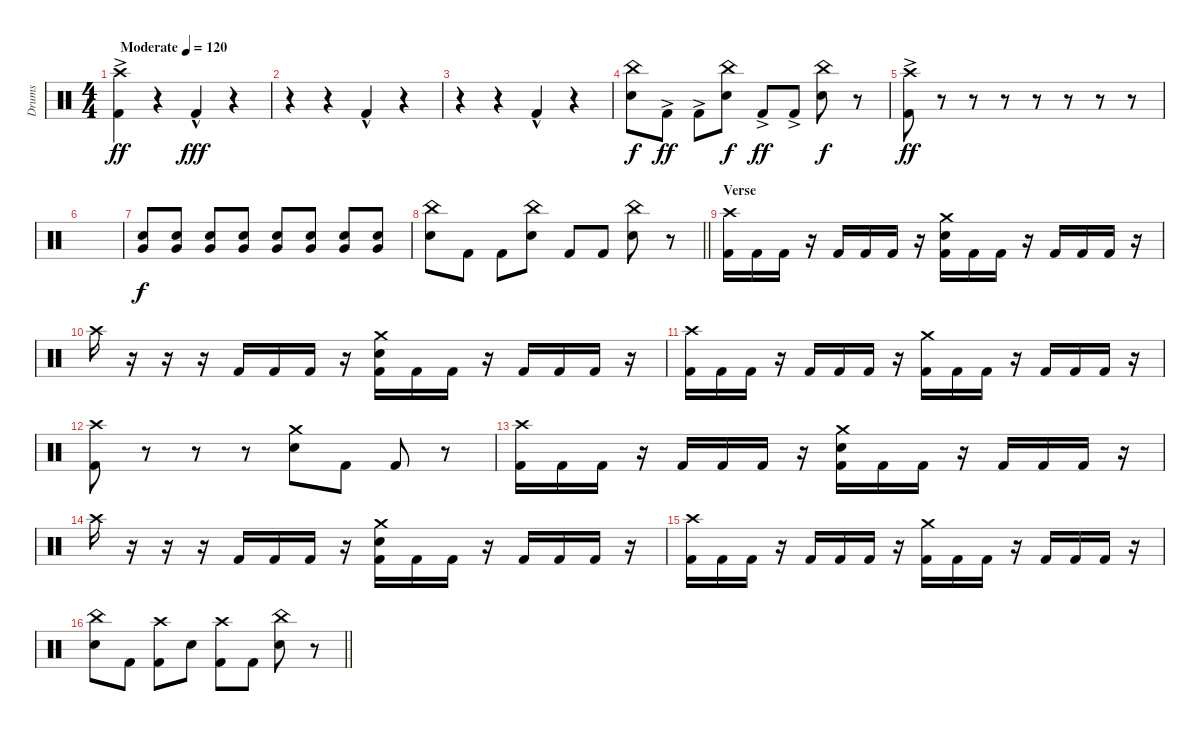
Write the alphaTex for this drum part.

\track ("Drums" "Drums") {instrument percussion}
\staff {score}
\articulation defaults
\ts (4 4)
\tempo (120 "Moderate")
\clef neutral
\ks c
("Kick (hit) 2"{ac} "Crash high (hit)").4{dy ff} r.4 "Kick (hit) 2"{hac}.4{dy fff} r.4 |
r.4 r.4 "Kick (hit) 2"{hac}.4 r.4 |
r.4 r.4 "Kick (hit) 2"{hac}.4 r.4 |
("Electric Snare (hit)" "China (hit)").8{dy f} "Kick (hit) 2"{ac}.8{dy ff} "Kick (hit) 2"{ac}.8 ("Electric Snare (hit)" "China (hit)").8{dy f} "Kick (hit) 2"{ac}.8{dy ff} "Kick (hit) 2"{ac}.8 ("Electric Snare (hit)" "China (hit)").8{dy f} r.8 |
("Kick (hit) 2"{ac} "Crash high (hit)").8{dy ff} r.8 r.8 r.8 r.8 r.8 r.8 r.8 |
|
("Very Low Tom (hit)" "Electric Snare (hit)").8{dy f} ("Very Low Tom (hit)" "Electric Snare (hit)").8 ("Very Low Tom (hit)" "Electric Snare (hit)").8 ("Very Low Tom (hit)" "Electric Snare (hit)").8 ("Very Low Tom (hit)" "Electric Snare (hit)").8 ("Very Low Tom (hit)" "Electric Snare (hit)").8 ("Very Low Tom (hit)" "Electric Snare (hit)").8 ("Very Low Tom (hit)" "Electric Snare (hit)").8 |
\barLineRight lightlight
("Electric Snare (hit)" "China (hit)").8 "Kick (hit) 2".8 "Kick (hit) 2".8 ("Electric Snare (hit)" "China (hit)").8 "Kick (hit) 2".8 "Kick (hit) 2".8 ("Electric Snare (hit)" "China (hit)").8 r.8 |
\section ("" "Verse ")
("Kick (hit) 2" "Crash high (hit)").16 "Kick (hit) 2".16 "Kick (hit) 2".16 r.16 "Kick (hit) 2".16 "Kick (hit) 2".16 "Kick (hit) 2".16 r.16 ("Kick (hit) 2" "Electric Snare (hit)" "Crash medium (hit)").16 "Kick (hit) 2".16 "Kick (hit) 2".16 r.16 "Kick (hit) 2".16 "Kick (hit) 2".16 "Kick (hit) 2".16 r.16 |
"Crash high (hit)".16 r.16 r.16 r.16 "Kick (hit) 2".16 "Kick (hit) 2".16 "Kick (hit) 2".16 r.16 ("Kick (hit) 2" "Electric Snare (hit)" "Crash medium (hit)").16 "Kick (hit) 2".16 "Kick (hit) 2".16 r.16 "Kick (hit) 2".16 "Kick (hit) 2".16 "Kick (hit) 2".16 r.16 |
("Kick (hit) 2" "Crash high (hit)").16 "Kick (hit) 2".16 "Kick (hit) 2".16 r.16 "Kick (hit) 2".16 "Kick (hit) 2".16 "Kick (hit) 2".16 r.16 ("Kick (hit) 2" "Crash medium (hit)").16 "Kick (hit) 2".16 "Kick (hit) 2".16 r.16 "Kick (hit) 2".16 "Kick (hit) 2".16 "Kick (hit) 2".16 r.16 |
("Kick (hit) 2" "Crash high (hit)").8 r.8 r.8 r.8 ("Electric Snare (hit)" "Crash medium (hit)").8 "Kick (hit) 2".8 "Kick (hit) 2".8 r.8 |
("Kick (hit) 2" "Crash high (hit)").16 "Kick (hit) 2".16 "Kick (hit) 2".16 r.16 "Kick (hit) 2".16 "Kick (hit) 2".16 "Kick (hit) 2".16 r.16 ("Kick (hit) 2" "Electric Snare (hit)" "Crash medium (hit)").16 "Kick (hit) 2".16 "Kick (hit) 2".16 r.16 "Kick (hit) 2".16 "Kick (hit) 2".16 "Kick (hit) 2".16 r.16 |
"Crash high (hit)".16 r.16 r.16 r.16 "Kick (hit) 2".16 "Kick (hit) 2".16 "Kick (hit) 2".16 r.16 ("Kick (hit) 2" "Electric Snare (hit)" "Crash medium (hit)").16 "Kick (hit) 2".16 "Kick (hit) 2".16 r.16 "Kick (hit) 2".16 "Kick (hit) 2".16 "Kick (hit) 2".16 r.16 |
("Kick (hit) 2" "Crash high (hit)").16 "Kick (hit) 2".16 "Kick (hit) 2".16 r.16 "Kick (hit) 2".16 "Kick (hit) 2".16 "Kick (hit) 2".16 r.16 ("Kick (hit) 2" "Crash medium (hit)").16 "Kick (hit) 2".16 "Kick (hit) 2".16 r.16 "Kick (hit) 2".16 "Kick (hit) 2".16 "Kick (hit) 2".16 r.16 |
\barLineRight lightlight
("Electric Snare (hit)" "China (hit)").8 "Kick (hit) 2".8 ("Kick (hit) 2" "Crash high (hit)").8 "Electric Snare (hit)".8 ("Kick (hit) 2" "Crash high (hit)").8 "Kick (hit) 2".8 ("Electric Snare (hit)" "China (hit)").8 r.8
